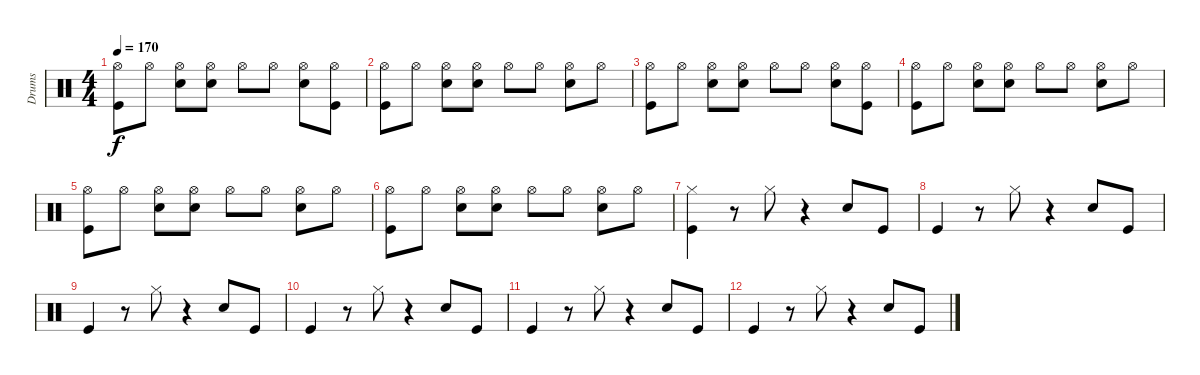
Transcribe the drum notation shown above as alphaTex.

\track ("Drums" "Drums") {instrument percussion}
\staff {score}
\articulation defaults
\ts (4 4)
\tempo 170
\clef neutral
\ks c
("Kick (hit)" "Hi-Hat (open)").8{dy f} "Hi-Hat (open)".8 ("Hi-Hat (open)" "Snare (hit) 2").8 ("Hi-Hat (open)" "Snare (hit) 2").8 "Hi-Hat (open)".8 "Hi-Hat (open)".8 ("Hi-Hat (open)" "Snare (hit) 2").8 ("Hi-Hat (open)" "Kick (hit)").8 |
("Kick (hit)" "Hi-Hat (open)").8 "Hi-Hat (open)".8 ("Hi-Hat (open)" "Snare (hit) 2").8 ("Hi-Hat (open)" "Snare (hit) 2").8 "Hi-Hat (open)".8 "Hi-Hat (open)".8 ("Hi-Hat (open)" "Snare (hit) 2").8 "Hi-Hat (open)".8 |
("Kick (hit)" "Hi-Hat (open)").8 "Hi-Hat (open)".8 ("Hi-Hat (open)" "Snare (hit) 2").8 ("Hi-Hat (open)" "Snare (hit) 2").8 "Hi-Hat (open)".8 "Hi-Hat (open)".8 ("Hi-Hat (open)" "Snare (hit) 2").8 ("Hi-Hat (open)" "Kick (hit)").8 |
("Hi-Hat (open)" "Kick (hit)").8 "Hi-Hat (open)".8 ("Hi-Hat (open)" "Snare (hit) 2").8 ("Hi-Hat (open)" "Snare (hit) 2").8 "Hi-Hat (open)".8 "Hi-Hat (open)".8 ("Hi-Hat (open)" "Snare (hit) 2").8 "Hi-Hat (open)".8 |
("Hi-Hat (open)" "Kick (hit)").8 "Hi-Hat (open)".8 ("Hi-Hat (open)" "Snare (hit) 2").8 ("Hi-Hat (open)" "Snare (hit) 2").8 "Hi-Hat (open)".8 "Hi-Hat (open)".8 ("Hi-Hat (open)" "Snare (hit) 2").8 "Hi-Hat (open)".8 |
("Hi-Hat (open)" "Kick (hit)").8 "Hi-Hat (open)".8 ("Hi-Hat (open)" "Snare (hit) 2").8 ("Hi-Hat (open)" "Snare (hit) 2").8 "Hi-Hat (open)".8 "Hi-Hat (open)".8 ("Hi-Hat (open)" "Snare (hit) 2").8 "Hi-Hat (open)".8 |
("Hi-Hat (closed)" "Kick (hit)").4 r.8 "Hi-Hat (closed)".8 r.4 "Snare (hit) 2".8 "Kick (hit)".8 |
"Kick (hit)".4 r.8 "Hi-Hat (closed)".8 r.4 "Snare (hit) 2".8 "Kick (hit)".8 |
"Kick (hit)".4 r.8 "Hi-Hat (closed)".8 r.4 "Snare (hit) 2".8 "Kick (hit)".8 |
"Kick (hit)".4 r.8 "Hi-Hat (closed)".8 r.4 "Snare (hit) 2".8 "Kick (hit)".8 |
"Kick (hit)".4 r.8 "Hi-Hat (closed)".8 r.4 "Snare (hit) 2".8 "Kick (hit)".8 |
"Kick (hit)".4 r.8 "Hi-Hat (closed)".8 r.4 "Snare (hit) 2".8 "Kick (hit)".8
